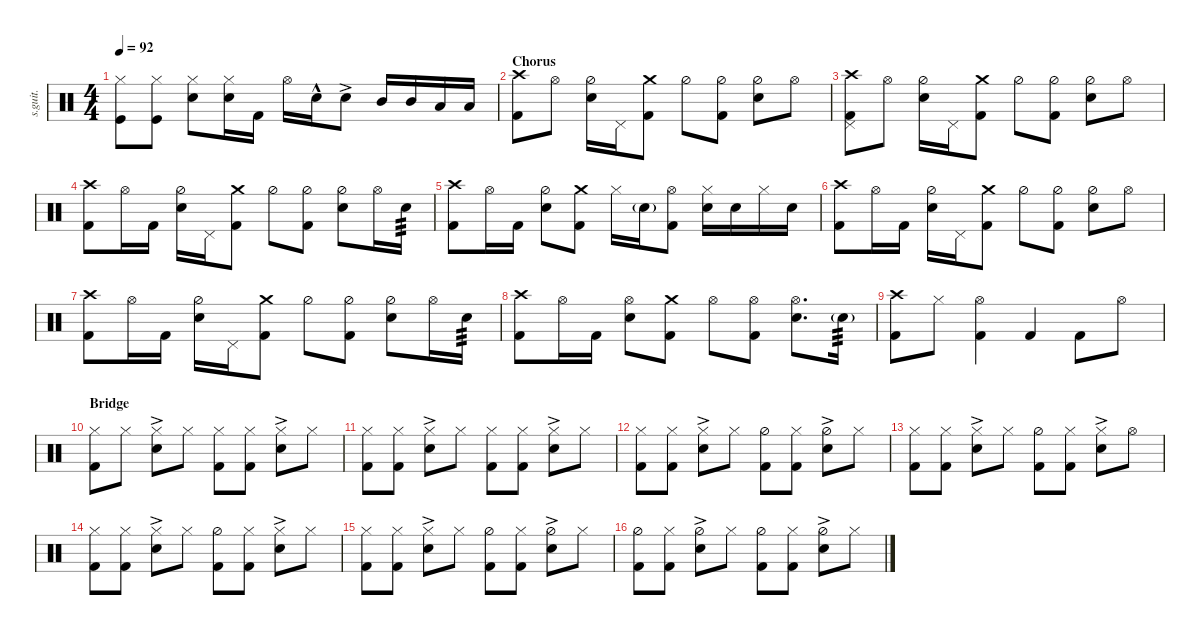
\defaultSystemsLayout 4
\hideDynamics
\bracketExtendMode nobrackets
\track ("Chad Smith | Pearl Masters Series | Drums" "s.guit.") {instrument percussion}
\staff {score}
\articulation defaults
\ts (4 4)
\tempo 92
\clef neutral
\ks c
("Hi-Hat (closed)" "Kick (hit)").8{dy f} ("Hi-Hat (closed)" "Kick (hit)").8 ("Hi-Hat (closed)" "Snare (hit) 2").8 ("Hi-Hat (closed)" "Snare (hit) 2").16 "Kick (hit) 2".16 "Hi-Hat (open)".16 "Snare (hit) 2"{hac}.16 "Snare (hit) 2"{ac}.8 "Mid Tom (hit)".16 "Mid Tom (hit)".16 "Low Floor Tom (hit)".16 "Low Floor Tom (hit)".16 |
\section ("" "Chorus")
("Crash high (hit)" "Kick (hit) 2").8 "Hi-Hat (open)".8 ("Hi-Hat (half)" "Snare (hit) 2").16 "Pedal Hi-Hat (hit)".16 ("Crash medium (hit)" "Kick (hit) 2").8 "Hi-Hat (half)".8 ("Hi-Hat (half)" "Kick (hit) 2").8 ("Hi-Hat (half)" "Snare (hit) 2").8 "Hi-Hat (open)".8 |
("Crash high (hit)" "Kick (hit) 2" "Pedal Hi-Hat (hit)").8 "Hi-Hat (open)".8 ("Hi-Hat (half)" "Snare (hit) 2").16 "Pedal Hi-Hat (hit)".16 ("Crash medium (hit)" "Kick (hit) 2").8 "Hi-Hat (half)".8 ("Hi-Hat (half)" "Kick (hit) 2").8 ("Hi-Hat (half)" "Snare (hit) 2").8 "Hi-Hat (open)".8 |
("Crash high (hit)" "Kick (hit) 2").8 "Hi-Hat (open)".16 "Kick (hit) 2".16 ("Hi-Hat (half)" "Snare (hit) 2").16 "Pedal Hi-Hat (hit)".16 ("Crash medium (hit)" "Kick (hit) 2").8 "Hi-Hat (half)".8 ("Hi-Hat (half)" "Kick (hit) 2").8 ("Hi-Hat (half)" "Snare (hit) 2").8 "Hi-Hat (open)".16 "Snare (hit) 2".16{tp 3} |
("Crash high (hit)" "Kick (hit) 2").8 "Hi-Hat (open)".16 "Kick (hit) 2".16 ("Hi-Hat (half)" "Snare (hit) 2").8 ("Crash medium (hit)" "Kick (hit) 2").8 "Hi-Hat (closed)".16 "Snare (hit) 2"{g}.16 ("Hi-Hat (open)" "Kick (hit) 2").8 ("Hi-Hat (closed)" "Snare (hit) 2").16 "Snare (hit) 2".16 "Hi-Hat (closed)".16 "Snare (hit) 2".16 |
("Crash high (hit)" "Kick (hit) 2").8 "Hi-Hat (open)".16 "Kick (hit) 2".16 ("Hi-Hat (half)" "Snare (hit) 2").16 "Pedal Hi-Hat (hit)".16 ("Crash medium (hit)" "Kick (hit) 2").8 "Hi-Hat (half)".8 ("Hi-Hat (half)" "Kick (hit) 2").8 ("Hi-Hat (half)" "Snare (hit) 2").8 "Hi-Hat (open)".8 |
("Crash high (hit)" "Kick (hit) 2").8 "Hi-Hat (open)".16 "Kick (hit) 2".16 ("Hi-Hat (half)" "Snare (hit) 2").16 "Pedal Hi-Hat (hit)".16 ("Crash medium (hit)" "Kick (hit) 2").8 "Hi-Hat (half)".8 ("Hi-Hat (half)" "Kick (hit) 2").8 ("Hi-Hat (half)" "Snare (hit) 2").8 "Hi-Hat (open)".16 "Snare (hit) 2".16{tp 3} |
("Crash high (hit)" "Kick (hit) 2").8 "Hi-Hat (open)".16 "Kick (hit) 2".16 ("Hi-Hat (open)" "Snare (hit) 2").8 ("Crash medium (hit)" "Kick (hit) 2").8 "Hi-Hat (open)".8 ("Hi-Hat (open)" "Kick (hit) 2").8 ("Hi-Hat (open)" "Snare (hit) 2").8{d} "Snare (hit) 2"{g}.16{tp 3} |
("Crash high (hit)" "Kick (hit) 2").8 "Hi-Hat (closed)".8 ("Hi-Hat (open)" "Kick (hit) 2").4 "Kick (hit) 2".4 "Kick (hit) 2".8 "Hi-Hat (open)".8 |
\section ("" "Bridge")
("Hi-Hat (closed)" "Kick (hit) 2").8 "Hi-Hat (closed)".8 ("Hi-Hat (closed)" "Snare (hit) 2"{ac}).8 "Hi-Hat (closed)".8 ("Hi-Hat (closed)" "Kick (hit) 2").8 ("Hi-Hat (closed)" "Kick (hit) 2").8 ("Hi-Hat (closed)" "Snare (hit) 2"{ac}).8 "Hi-Hat (closed)".8 |
("Hi-Hat (closed)" "Kick (hit) 2").8 ("Hi-Hat (closed)" "Kick (hit) 2").8 ("Hi-Hat (closed)" "Snare (hit) 2"{ac}).8 "Hi-Hat (closed)".8 ("Hi-Hat (closed)" "Kick (hit) 2").8 ("Hi-Hat (closed)" "Kick (hit) 2").8 ("Hi-Hat (closed)" "Snare (hit) 2"{ac}).8 "Hi-Hat (closed)".8 |
("Hi-Hat (closed)" "Kick (hit) 2").8 ("Hi-Hat (closed)" "Kick (hit) 2").8 ("Hi-Hat (closed)" "Snare (hit) 2"{ac}).8 "Hi-Hat (closed)".8 ("Hi-Hat (half)" "Kick (hit) 2").8 ("Hi-Hat (closed)" "Kick (hit) 2").8 ("Hi-Hat (half)" "Snare (hit) 2"{ac}).8 "Hi-Hat (closed)".8 |
("Hi-Hat (closed)" "Kick (hit) 2").8 ("Hi-Hat (closed)" "Kick (hit) 2").8 ("Hi-Hat (closed)" "Snare (hit) 2"{ac}).8 "Hi-Hat (closed)".8 ("Hi-Hat (half)" "Kick (hit) 2").8 ("Hi-Hat (closed)" "Kick (hit) 2").8 ("Hi-Hat (closed)" "Snare (hit) 2"{ac}).8 "Hi-Hat (open)".8 |
("Hi-Hat (closed)" "Kick (hit) 2").8 ("Hi-Hat (closed)" "Kick (hit) 2").8 ("Hi-Hat (closed)" "Snare (hit) 2"{ac}).8 "Hi-Hat (closed)".8 ("Hi-Hat (half)" "Kick (hit) 2").8 ("Hi-Hat (closed)" "Kick (hit) 2").8 ("Hi-Hat (closed)" "Snare (hit) 2"{ac}).8 "Hi-Hat (closed)".8 |
("Hi-Hat (closed)" "Kick (hit) 2").8 ("Hi-Hat (closed)" "Kick (hit) 2").8 ("Hi-Hat (closed)" "Snare (hit) 2"{ac}).8 "Hi-Hat (closed)".8 ("Hi-Hat (half)" "Kick (hit) 2").8 ("Hi-Hat (closed)" "Kick (hit) 2").8 ("Hi-Hat (half)" "Snare (hit) 2"{ac}).8 "Hi-Hat (closed)".8 |
("Hi-Hat (half)" "Kick (hit) 2").8 ("Hi-Hat (closed)" "Kick (hit) 2").8 ("Hi-Hat (half)" "Snare (hit) 2"{ac}).8 "Hi-Hat (closed)".8 ("Hi-Hat (half)" "Kick (hit) 2").8 ("Hi-Hat (closed)" "Kick (hit) 2").8 ("Hi-Hat (half)" "Snare (hit) 2"{ac}).8 "Hi-Hat (closed)".8
